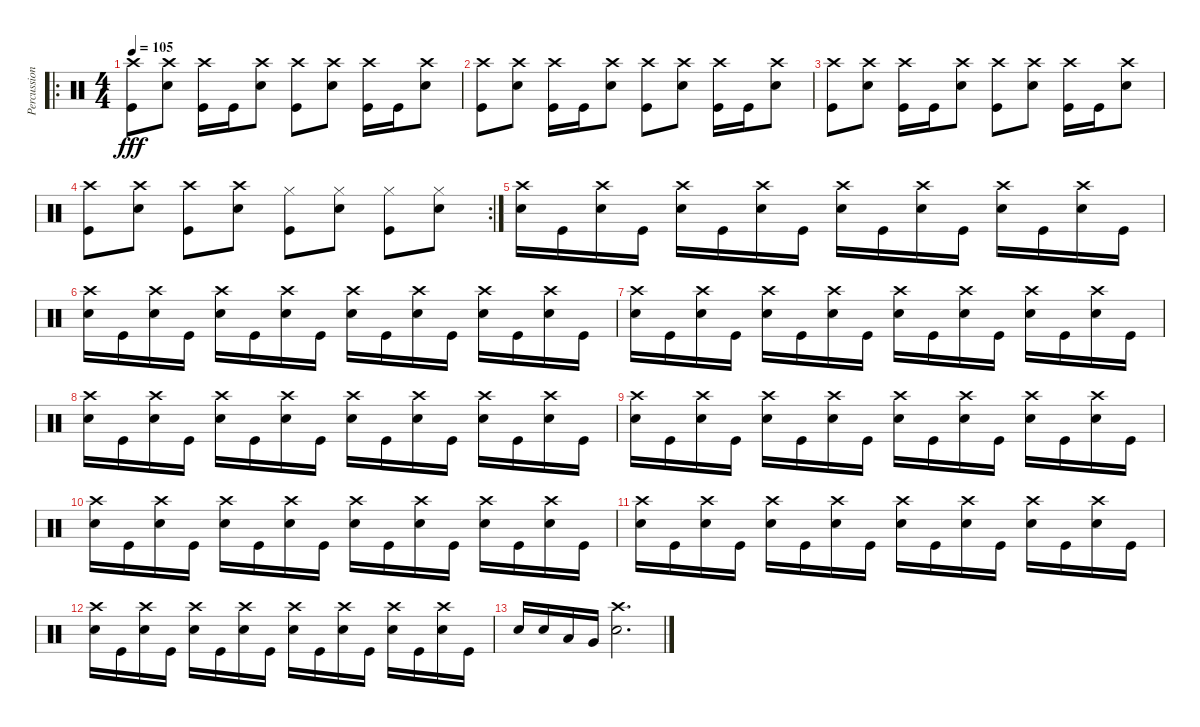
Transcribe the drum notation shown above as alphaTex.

\track ("Percussions" "Percussion") {instrument percussion}
\staff {score}
\articulation defaults
\ro
\ts (4 4)
\tempo 105
\clef neutral
\ks c
("Crash high (hit)" "Kick (hit)").8{dy fff} ("Crash high (hit)" "Electric Snare (hit)").8 ("Crash high (hit)" "Kick (hit)").16 "Kick (hit)".16 ("Crash high (hit)" "Electric Snare (hit)").8 ("Crash high (hit)" "Kick (hit)").8 ("Crash high (hit)" "Electric Snare (hit)").8 ("Crash high (hit)" "Kick (hit)").16 "Kick (hit)".16 ("Crash high (hit)" "Electric Snare (hit)").8 |
("Crash high (hit)" "Kick (hit)").8 ("Crash high (hit)" "Electric Snare (hit)").8 ("Crash high (hit)" "Kick (hit)").16 "Kick (hit)".16 ("Crash high (hit)" "Electric Snare (hit)").8 ("Crash high (hit)" "Kick (hit)").8 ("Crash high (hit)" "Electric Snare (hit)").8 ("Crash high (hit)" "Kick (hit)").16 "Kick (hit)".16 ("Crash high (hit)" "Electric Snare (hit)").8 |
("Crash high (hit)" "Kick (hit)").8 ("Crash high (hit)" "Electric Snare (hit)").8 ("Crash high (hit)" "Kick (hit)").16 "Kick (hit)".16 ("Crash high (hit)" "Electric Snare (hit)").8 ("Crash high (hit)" "Kick (hit)").8 ("Crash high (hit)" "Electric Snare (hit)").8 ("Crash high (hit)" "Kick (hit)").16 "Kick (hit)".16 ("Crash high (hit)" "Electric Snare (hit)").8 |
\rc 2
("Crash high (hit)" "Kick (hit)").8 ("Crash high (hit)" "Electric Snare (hit)").8 ("Crash high (hit)" "Kick (hit)").8 ("Crash high (hit)" "Electric Snare (hit)").8 ("Hi-Hat (closed)" "Kick (hit)").8 ("Hi-Hat (closed)" "Electric Snare (hit)").8 ("Hi-Hat (closed)" "Kick (hit)").8 ("Hi-Hat (closed)" "Electric Snare (hit)").8 |
("Crash high (hit)" "Electric Snare (hit)").16 "Kick (hit)".16 ("Crash high (hit)" "Electric Snare (hit)").16 "Kick (hit)".16 ("Crash high (hit)" "Electric Snare (hit)").16 "Kick (hit)".16 ("Crash high (hit)" "Electric Snare (hit)").16 "Kick (hit)".16 ("Crash high (hit)" "Electric Snare (hit)").16 "Kick (hit)".16 ("Crash high (hit)" "Electric Snare (hit)").16 "Kick (hit)".16 ("Crash high (hit)" "Electric Snare (hit)").16 "Kick (hit)".16 ("Crash high (hit)" "Electric Snare (hit)").16 "Kick (hit)".16 |
("Crash high (hit)" "Electric Snare (hit)").16 "Kick (hit)".16 ("Crash high (hit)" "Electric Snare (hit)").16 "Kick (hit)".16 ("Crash high (hit)" "Electric Snare (hit)").16 "Kick (hit)".16 ("Crash high (hit)" "Electric Snare (hit)").16 "Kick (hit)".16 ("Crash high (hit)" "Electric Snare (hit)").16 "Kick (hit)".16 ("Crash high (hit)" "Electric Snare (hit)").16 "Kick (hit)".16 ("Crash high (hit)" "Electric Snare (hit)").16 "Kick (hit)".16 ("Crash high (hit)" "Electric Snare (hit)").16 "Kick (hit)".16 |
("Crash high (hit)" "Electric Snare (hit)").16 "Kick (hit)".16 ("Crash high (hit)" "Electric Snare (hit)").16 "Kick (hit)".16 ("Crash high (hit)" "Electric Snare (hit)").16 "Kick (hit)".16 ("Crash high (hit)" "Electric Snare (hit)").16 "Kick (hit)".16 ("Crash high (hit)" "Electric Snare (hit)").16 "Kick (hit)".16 ("Crash high (hit)" "Electric Snare (hit)").16 "Kick (hit)".16 ("Crash high (hit)" "Electric Snare (hit)").16 "Kick (hit)".16 ("Crash high (hit)" "Electric Snare (hit)").16 "Kick (hit)".16 |
("Crash high (hit)" "Electric Snare (hit)").16 "Kick (hit)".16 ("Crash high (hit)" "Electric Snare (hit)").16 "Kick (hit)".16 ("Crash high (hit)" "Electric Snare (hit)").16 "Kick (hit)".16 ("Crash high (hit)" "Electric Snare (hit)").16 "Kick (hit)".16 ("Crash high (hit)" "Electric Snare (hit)").16 "Kick (hit)".16 ("Crash high (hit)" "Electric Snare (hit)").16 "Kick (hit)".16 ("Crash high (hit)" "Electric Snare (hit)").16 "Kick (hit)".16 ("Crash high (hit)" "Electric Snare (hit)").16 "Kick (hit)".16 |
("Crash high (hit)" "Electric Snare (hit)").16 "Kick (hit)".16 ("Crash high (hit)" "Electric Snare (hit)").16 "Kick (hit)".16 ("Crash high (hit)" "Electric Snare (hit)").16 "Kick (hit)".16 ("Crash high (hit)" "Electric Snare (hit)").16 "Kick (hit)".16 ("Crash high (hit)" "Electric Snare (hit)").16 "Kick (hit)".16 ("Crash high (hit)" "Electric Snare (hit)").16 "Kick (hit)".16 ("Crash high (hit)" "Electric Snare (hit)").16 "Kick (hit)".16 ("Crash high (hit)" "Electric Snare (hit)").16 "Kick (hit)".16 |
("Crash high (hit)" "Electric Snare (hit)").16 "Kick (hit)".16 ("Crash high (hit)" "Electric Snare (hit)").16 "Kick (hit)".16 ("Crash high (hit)" "Electric Snare (hit)").16 "Kick (hit)".16 ("Crash high (hit)" "Electric Snare (hit)").16 "Kick (hit)".16 ("Crash high (hit)" "Electric Snare (hit)").16 "Kick (hit)".16 ("Crash high (hit)" "Electric Snare (hit)").16 "Kick (hit)".16 ("Crash high (hit)" "Electric Snare (hit)").16 "Kick (hit)".16 ("Crash high (hit)" "Electric Snare (hit)").16 "Kick (hit)".16 |
("Crash high (hit)" "Electric Snare (hit)").16 "Kick (hit)".16 ("Crash high (hit)" "Electric Snare (hit)").16 "Kick (hit)".16 ("Crash high (hit)" "Electric Snare (hit)").16 "Kick (hit)".16 ("Crash high (hit)" "Electric Snare (hit)").16 "Kick (hit)".16 ("Crash high (hit)" "Electric Snare (hit)").16 "Kick (hit)".16 ("Crash high (hit)" "Electric Snare (hit)").16 "Kick (hit)".16 ("Crash high (hit)" "Electric Snare (hit)").16 "Kick (hit)".16 ("Crash high (hit)" "Electric Snare (hit)").16 "Kick (hit)".16 |
("Crash high (hit)" "Electric Snare (hit)").16 "Kick (hit)".16 ("Crash high (hit)" "Electric Snare (hit)").16 "Kick (hit)".16 ("Crash high (hit)" "Electric Snare (hit)").16 "Kick (hit)".16 ("Crash high (hit)" "Electric Snare (hit)").16 "Kick (hit)".16 ("Crash high (hit)" "Electric Snare (hit)").16 "Kick (hit)".16 ("Crash high (hit)" "Electric Snare (hit)").16 "Kick (hit)".16 ("Crash high (hit)" "Electric Snare (hit)").16 "Kick (hit)".16 ("Crash high (hit)" "Electric Snare (hit)").16 "Kick (hit)".16 |
"Electric Snare (hit)".16 "Electric Snare (hit)".16 "Low Tom (hit)".16 "Very Low Tom (hit)".16 ("Crash high (hit)" "Electric Snare (hit)").2{d}
